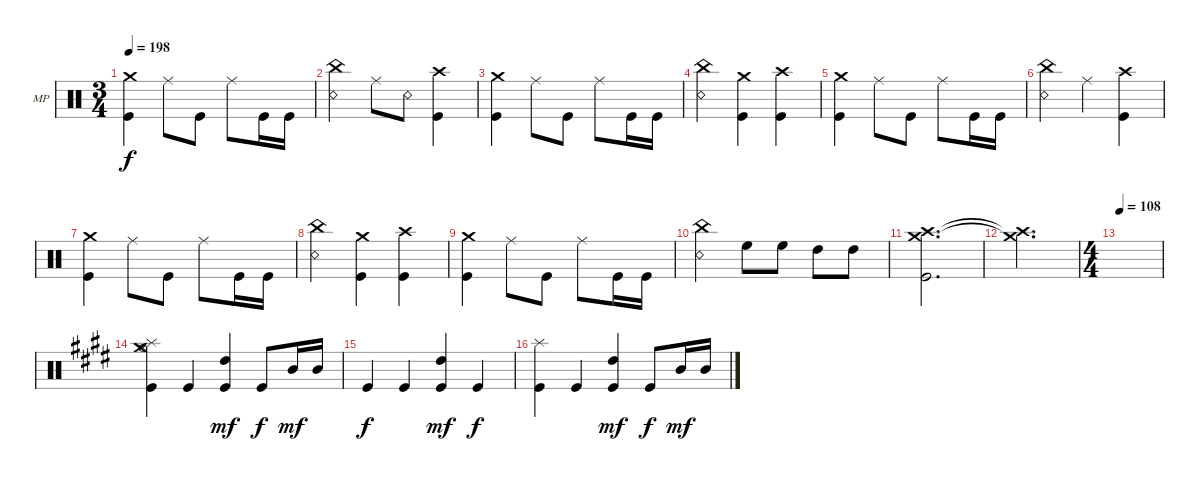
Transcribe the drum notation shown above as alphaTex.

\defaultSystemsLayout 4
\bracketExtendMode groupsimilarinstruments
\firstSystemTrackNameOrientation horizontal
\otherSystemsTrackNameOrientation horizontal
\track ("Mike Portnoy" "MP") {instrument percussion}
\staff {score}
\articulation defaults
\ts (3 4)
\tempo 198
\clef neutral
\ks c
("Crash medium (hit)" "Kick (hit)").4{dy f} "Ride (middle)".8 "Kick (hit)".8 "Ride (middle)".8 "Kick (hit)".16 "Kick (hit)".16 |
("China (hit)" "Snare (rim shot)").4 "Ride (middle)".8 "Snare (rim shot)".8 ("Crash high (hit)" "Kick (hit)").4 |
("Crash medium (hit)" "Kick (hit)").4 "Ride (middle)".8 "Kick (hit)".8 "Ride (middle)".8 "Kick (hit)".16 "Kick (hit)".16 |
("China (hit)" "Snare (rim shot)").4 ("Crash medium (hit)" "Kick (hit)").4 ("Crash high (hit)" "Kick (hit)").4 |
("Crash medium (hit)" "Kick (hit)").4 "Ride (middle)".8 "Kick (hit)".8 "Ride (middle)".8 "Kick (hit)".16 "Kick (hit)".16 |
("China (hit)" "Snare (rim shot)").4 "Ride (middle)".4 ("Crash high (hit)" "Kick (hit)").4 |
("Crash medium (hit)" "Kick (hit)").4 "Ride (middle)".8 "Kick (hit)".8 "Ride (middle)".8 "Kick (hit)".16 "Kick (hit)".16 |
("China (hit)" "Snare (rim shot)").4 ("Crash medium (hit)" "Kick (hit)").4 ("Crash high (hit)" "Kick (hit)").4 |
("Crash medium (hit)" "Kick (hit)").4 "Ride (middle)".8 "Kick (hit)".8 "Ride (middle)".8 "Kick (hit)".16 "Kick (hit)".16 |
("China (hit)" "Snare (rim shot)").4 "High Floor Tom (hit)".8 "High Floor Tom (hit)".8 "High Tom (hit)".8 "High Tom (hit)".8 |
("Crash high (hit)" "Crash medium (hit)" "Kick (hit)").2{d} |
("Crash high (hit)"{t} "Crash medium (hit)"{t}).2{d} |
\ts (4 4)
\tempo 108
|
\ks e
("Kick (hit)" "Hi-Hat (open)" "Crash medium (hit)" "Splash (hit)").4 "Kick (hit)".4 ("High Tom (hit)" "Kick (hit)").4{dy mf} "Kick (hit)".8{dy f} "Mid Tom (hit)".16{dy mf} "Mid Tom (hit)".16 |
"Kick (hit)".4{dy f} "Kick (hit)".4 ("High Tom (hit)" "Kick (hit)").4{dy mf} "Kick (hit)".4{dy f} |
("Splash (hit)" "Kick (hit)").4 "Kick (hit)".4 ("High Tom (hit)" "Kick (hit)").4{dy mf} "Kick (hit)".8{dy f} "Mid Tom (hit)".16{dy mf} "Mid Tom (hit)".16
